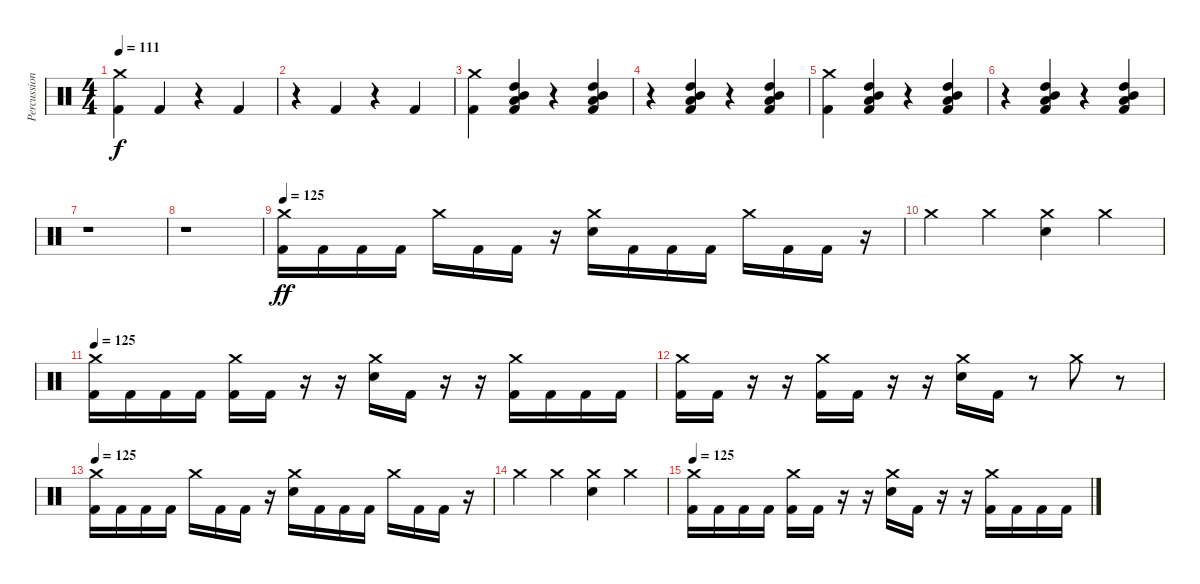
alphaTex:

\track ("Percussion" "Percussion") {instrument percussion}
\staff {score}
\articulation defaults
\ts (4 4)
\tempo 111
\clef neutral
\ks c
("Crash medium (hit)" "Kick (hit) 2").4{dy f} "Kick (hit) 2".4 r.4 "Kick (hit) 2".4 |
r.4 "Kick (hit) 2".4 r.4 "Kick (hit) 2".4 |
("Crash medium (hit)" "Kick (hit) 2").4 ("Mid Tom (hit)" "Low Tom (hit)" "High Tom (hit)" "Kick (hit) 2").4 r.4 ("Mid Tom (hit)" "Low Tom (hit)" "High Tom (hit)" "Kick (hit) 2").4 |
r.4 ("Mid Tom (hit)" "Low Tom (hit)" "High Tom (hit)" "Kick (hit) 2").4 r.4 ("Mid Tom (hit)" "Low Tom (hit)" "High Tom (hit)" "Kick (hit) 2").4 |
("Crash medium (hit)" "Kick (hit) 2").4 ("Mid Tom (hit)" "Low Tom (hit)" "High Tom (hit)" "Kick (hit) 2").4 r.4 ("Mid Tom (hit)" "Low Tom (hit)" "High Tom (hit)" "Kick (hit) 2").4 |
r.4 ("Mid Tom (hit)" "Low Tom (hit)" "High Tom (hit)" "Kick (hit) 2").4 r.4 ("Mid Tom (hit)" "Low Tom (hit)" "High Tom (hit)" "Kick (hit) 2").4 |
r.1 |
r.1 |
\tempo 125
("Crash medium (hit)" "Kick (hit) 2").16{dy ff} "Kick (hit) 2".16 "Kick (hit) 2".16 "Kick (hit) 2".16 "Crash medium (hit)".16 "Kick (hit) 2".16 "Kick (hit) 2".16 r.16 ("Crash medium (hit)" "Snare (hit) 2").16 "Kick (hit) 2".16 "Kick (hit) 2".16 "Kick (hit) 2".16 "Crash medium (hit)".16 "Kick (hit) 2".16 "Kick (hit) 2".16 r.16 |
"Crash medium (hit)".4 "Crash medium (hit)".4 ("Crash medium (hit)" "Snare (hit) 2").4 "Crash medium (hit)".4 |
\tempo 125
("Crash medium (hit)" "Kick (hit) 2").16 "Kick (hit) 2".16 "Kick (hit) 2".16 "Kick (hit) 2".16 ("Crash medium (hit)" "Kick (hit) 2").16 "Kick (hit) 2".16 r.16 r.16 ("Crash medium (hit)" "Snare (hit) 2").16 "Kick (hit) 2".16 r.16 r.16 ("Crash medium (hit)" "Kick (hit) 2").16 "Kick (hit) 2".16 "Kick (hit) 2".16 "Kick (hit) 2".16 |
("Crash medium (hit)" "Kick (hit) 2").16 "Kick (hit) 2".16 r.16 r.16 ("Crash medium (hit)" "Kick (hit) 2").16 "Kick (hit) 2".16 r.16 r.16 ("Crash medium (hit)" "Snare (hit) 2").16 "Kick (hit) 2".16 r.8 "Crash medium (hit)".8 r.8 |
\tempo 125
("Crash medium (hit)" "Kick (hit) 2").16 "Kick (hit) 2".16 "Kick (hit) 2".16 "Kick (hit) 2".16 "Crash medium (hit)".16 "Kick (hit) 2".16 "Kick (hit) 2".16 r.16 ("Crash medium (hit)" "Snare (hit) 2").16 "Kick (hit) 2".16 "Kick (hit) 2".16 "Kick (hit) 2".16 "Crash medium (hit)".16 "Kick (hit) 2".16 "Kick (hit) 2".16 r.16 |
"Crash medium (hit)".4 "Crash medium (hit)".4 ("Crash medium (hit)" "Snare (hit) 2").4 "Crash medium (hit)".4 |
\tempo 125
("Crash medium (hit)" "Kick (hit) 2").16 "Kick (hit) 2".16 "Kick (hit) 2".16 "Kick (hit) 2".16 ("Crash medium (hit)" "Kick (hit) 2").16 "Kick (hit) 2".16 r.16 r.16 ("Crash medium (hit)" "Snare (hit) 2").16 "Kick (hit) 2".16 r.16 r.16 ("Crash medium (hit)" "Kick (hit) 2").16 "Kick (hit) 2".16 "Kick (hit) 2".16 "Kick (hit) 2".16
